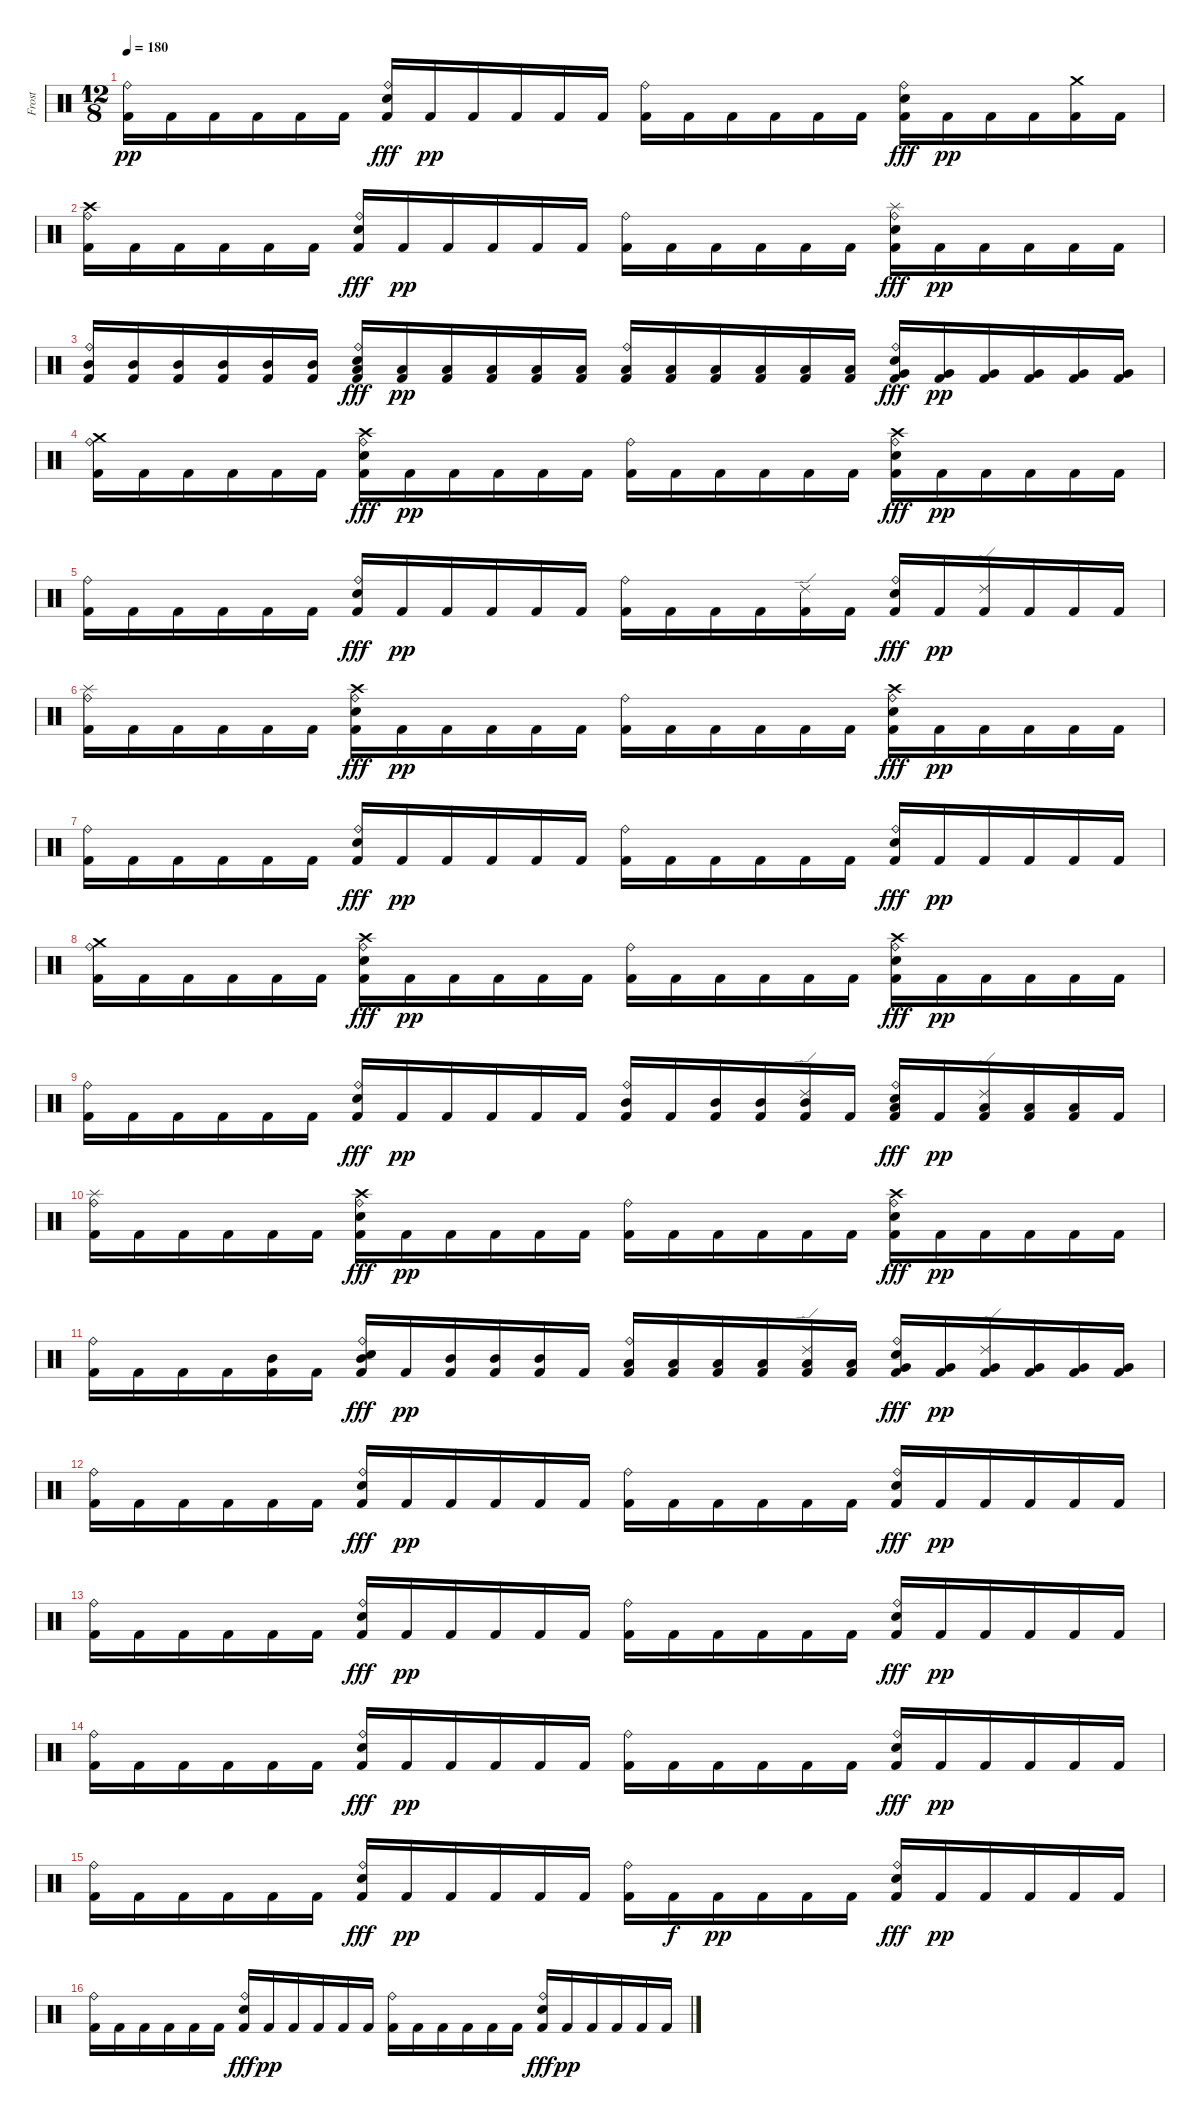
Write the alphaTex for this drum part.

\track ("Frost" "Frost") {instrument percussion}
\staff {score}
\articulation defaults
\ts (12 8)
\tempo 180
\clef neutral
\ks c
("Kick (hit) 2" "Ride (bell)").16{dy pp} "Kick (hit) 2".16 "Kick (hit) 2".16 "Kick (hit) 2".16 "Kick (hit) 2".16 "Kick (hit) 2".16 ("Kick (hit) 2" "Ride (bell)" "Electric Snare (hit)").16{dy fff} "Kick (hit) 2".16{dy pp} "Kick (hit) 2".16 "Kick (hit) 2".16 "Kick (hit) 2".16 "Kick (hit) 2".16 ("Kick (hit) 2" "Ride (bell)").16 "Kick (hit) 2".16 "Kick (hit) 2".16 "Kick (hit) 2".16 "Kick (hit) 2".16 "Kick (hit) 2".16 ("Kick (hit) 2" "Ride (bell)" "Electric Snare (hit)").16{dy fff} "Kick (hit) 2".16{dy pp} "Kick (hit) 2".16 "Kick (hit) 2".16 ("Kick (hit) 2" "Crash medium (hit)").16 "Kick (hit) 2".16 |
("Kick (hit) 2" "Crash high (hit)" "Ride (bell)").16 "Kick (hit) 2".16 "Kick (hit) 2".16 "Kick (hit) 2".16 "Kick (hit) 2".16 "Kick (hit) 2".16 ("Kick (hit) 2" "Ride (bell)" "Electric Snare (hit)").16{dy fff} "Kick (hit) 2".16{dy pp} "Kick (hit) 2".16 "Kick (hit) 2".16 "Kick (hit) 2".16 "Kick (hit) 2".16 ("Kick (hit) 2" "Ride (bell)").16 "Kick (hit) 2".16 "Kick (hit) 2".16 "Kick (hit) 2".16 "Kick (hit) 2".16 "Kick (hit) 2".16 ("Kick (hit) 2" "Splash (hit)" "Ride (bell)" "Electric Snare (hit)").16{dy fff} "Kick (hit) 2".16{dy pp} "Kick (hit) 2".16 "Kick (hit) 2".16 "Kick (hit) 2".16 "Kick (hit) 2".16 |
("Kick (hit) 2" "Mid Tom (hit)" "Ride (bell)").16 ("Kick (hit) 2" "Mid Tom (hit)").16 ("Kick (hit) 2" "Mid Tom (hit)").16 ("Kick (hit) 2" "Mid Tom (hit)").16 ("Kick (hit) 2" "Mid Tom (hit)").16 ("Kick (hit) 2" "Mid Tom (hit)").16 ("Kick (hit) 2" "Low Tom (hit)" "Ride (bell)" "Electric Snare (hit)").16{dy fff} ("Kick (hit) 2" "Low Tom (hit)").16{dy pp} ("Kick (hit) 2" "Low Tom (hit)").16 ("Kick (hit) 2" "Low Tom (hit)").16 ("Kick (hit) 2" "Low Tom (hit)").16 ("Kick (hit) 2" "Low Tom (hit)").16 ("Kick (hit) 2" "Low Tom (hit)" "Ride (bell)").16 ("Kick (hit) 2" "Low Tom (hit)").16 ("Kick (hit) 2" "Low Tom (hit)").16 ("Kick (hit) 2" "Low Tom (hit)").16 ("Kick (hit) 2" "Low Tom (hit)").16 ("Kick (hit) 2" "Low Tom (hit)").16 ("Kick (hit) 2" "Very Low Tom (hit)" "Ride (bell)" "Electric Snare (hit)").16{dy fff} ("Kick (hit) 2" "Very Low Tom (hit)").16{dy pp} ("Kick (hit) 2" "Very Low Tom (hit)").16 ("Kick (hit) 2" "Very Low Tom (hit)").16 ("Kick (hit) 2" "Very Low Tom (hit)").16 ("Kick (hit) 2" "Very Low Tom (hit)").16 |
("Kick (hit) 2" "Crash medium (hit)" "Ride (bell)").16 "Kick (hit) 2".16 "Kick (hit) 2".16 "Kick (hit) 2".16 "Kick (hit) 2".16 "Kick (hit) 2".16 ("Kick (hit) 2" "Crash high (hit)" "Ride (bell)" "Electric Snare (hit)").16{dy fff} "Kick (hit) 2".16{dy pp} "Kick (hit) 2".16 "Kick (hit) 2".16 "Kick (hit) 2".16 "Kick (hit) 2".16 ("Kick (hit) 2" "Ride (bell)").16 "Kick (hit) 2".16 "Kick (hit) 2".16 "Kick (hit) 2".16 "Kick (hit) 2".16 "Kick (hit) 2".16 ("Kick (hit) 2" "Crash high (hit)" "Ride (bell)" "Electric Snare (hit)").16{dy fff} "Kick (hit) 2".16{dy pp} "Kick (hit) 2".16 "Kick (hit) 2".16 "Kick (hit) 2".16 "Kick (hit) 2".16 |
("Kick (hit) 2" "Ride (bell)").16 "Kick (hit) 2".16 "Kick (hit) 2".16 "Kick (hit) 2".16 "Kick (hit) 2".16 "Kick (hit) 2".16 ("Kick (hit) 2" "Ride (bell)" "Electric Snare (hit)").16{dy fff} "Kick (hit) 2".16{dy pp} "Kick (hit) 2".16 "Kick (hit) 2".16 "Kick (hit) 2".16 "Kick (hit) 2".16 ("Kick (hit) 2" "Ride (bell)").16 "Kick (hit) 2".16 "Kick (hit) 2".16 "Kick (hit) 2".16 ("Kick (hit) 2" "Ride (edge) 2").16 "Kick (hit) 2".16 ("Kick (hit) 2" "Ride (bell)" "Electric Snare (hit)").16{dy fff} "Kick (hit) 2".16{dy pp} ("Kick (hit) 2" "Ride (edge) 2").16 "Kick (hit) 2".16 "Kick (hit) 2".16 "Kick (hit) 2".16 |
("Kick (hit) 2" "Splash (hit)" "Ride (bell)").16 "Kick (hit) 2".16 "Kick (hit) 2".16 "Kick (hit) 2".16 "Kick (hit) 2".16 "Kick (hit) 2".16 ("Kick (hit) 2" "Crash high (hit)" "Ride (bell)" "Electric Snare (hit)").16{dy fff} "Kick (hit) 2".16{dy pp} "Kick (hit) 2".16 "Kick (hit) 2".16 "Kick (hit) 2".16 "Kick (hit) 2".16 ("Kick (hit) 2" "Ride (bell)").16 "Kick (hit) 2".16 "Kick (hit) 2".16 "Kick (hit) 2".16 "Kick (hit) 2".16 "Kick (hit) 2".16 ("Kick (hit) 2" "Crash high (hit)" "Ride (bell)" "Electric Snare (hit)").16{dy fff} "Kick (hit) 2".16{dy pp} "Kick (hit) 2".16 "Kick (hit) 2".16 "Kick (hit) 2".16 "Kick (hit) 2".16 |
("Kick (hit) 2" "Ride (bell)").16 "Kick (hit) 2".16 "Kick (hit) 2".16 "Kick (hit) 2".16 "Kick (hit) 2".16 "Kick (hit) 2".16 ("Kick (hit) 2" "Ride (bell)" "Electric Snare (hit)").16{dy fff} "Kick (hit) 2".16{dy pp} "Kick (hit) 2".16 "Kick (hit) 2".16 "Kick (hit) 2".16 "Kick (hit) 2".16 ("Kick (hit) 2" "Ride (bell)").16 "Kick (hit) 2".16 "Kick (hit) 2".16 "Kick (hit) 2".16 "Kick (hit) 2".16 "Kick (hit) 2".16 ("Kick (hit) 2" "Ride (bell)" "Electric Snare (hit)").16{dy fff} "Kick (hit) 2".16{dy pp} "Kick (hit) 2".16 "Kick (hit) 2".16 "Kick (hit) 2".16 "Kick (hit) 2".16 |
("Kick (hit) 2" "Crash medium (hit)" "Ride (bell)").16 "Kick (hit) 2".16 "Kick (hit) 2".16 "Kick (hit) 2".16 "Kick (hit) 2".16 "Kick (hit) 2".16 ("Kick (hit) 2" "Crash high (hit)" "Ride (bell)" "Electric Snare (hit)").16{dy fff} "Kick (hit) 2".16{dy pp} "Kick (hit) 2".16 "Kick (hit) 2".16 "Kick (hit) 2".16 "Kick (hit) 2".16 ("Kick (hit) 2" "Ride (bell)").16 "Kick (hit) 2".16 "Kick (hit) 2".16 "Kick (hit) 2".16 "Kick (hit) 2".16 "Kick (hit) 2".16 ("Kick (hit) 2" "Crash high (hit)" "Ride (bell)" "Electric Snare (hit)").16{dy fff} "Kick (hit) 2".16{dy pp} "Kick (hit) 2".16 "Kick (hit) 2".16 "Kick (hit) 2".16 "Kick (hit) 2".16 |
("Kick (hit) 2" "Ride (bell)").16 "Kick (hit) 2".16 "Kick (hit) 2".16 "Kick (hit) 2".16 "Kick (hit) 2".16 "Kick (hit) 2".16 ("Kick (hit) 2" "Ride (bell)" "Electric Snare (hit)").16{dy fff} "Kick (hit) 2".16{dy pp} "Kick (hit) 2".16 "Kick (hit) 2".16 "Kick (hit) 2".16 "Kick (hit) 2".16 ("Kick (hit) 2" "Mid Tom (hit)" "Ride (bell)").16 "Kick (hit) 2".16 ("Kick (hit) 2" "Mid Tom (hit)").16 ("Kick (hit) 2" "Mid Tom (hit)").16 ("Kick (hit) 2" "Mid Tom (hit)" "Ride (edge) 2").16 "Kick (hit) 2".16 ("Kick (hit) 2" "Low Tom (hit)" "Ride (bell)" "Electric Snare (hit)").16{dy fff} "Kick (hit) 2".16{dy pp} ("Kick (hit) 2" "Low Tom (hit)" "Ride (edge) 2").16 ("Kick (hit) 2" "Low Tom (hit)").16 ("Kick (hit) 2" "Low Tom (hit)").16 "Kick (hit) 2".16 |
("Kick (hit) 2" "Splash (hit)" "Ride (bell)").16 "Kick (hit) 2".16 "Kick (hit) 2".16 "Kick (hit) 2".16 "Kick (hit) 2".16 "Kick (hit) 2".16 ("Kick (hit) 2" "Crash high (hit)" "Ride (bell)" "Electric Snare (hit)").16{dy fff} "Kick (hit) 2".16{dy pp} "Kick (hit) 2".16 "Kick (hit) 2".16 "Kick (hit) 2".16 "Kick (hit) 2".16 ("Kick (hit) 2" "Ride (bell)").16 "Kick (hit) 2".16 "Kick (hit) 2".16 "Kick (hit) 2".16 "Kick (hit) 2".16 "Kick (hit) 2".16 ("Kick (hit) 2" "Crash high (hit)" "Ride (bell)" "Electric Snare (hit)").16{dy fff} "Kick (hit) 2".16{dy pp} "Kick (hit) 2".16 "Kick (hit) 2".16 "Kick (hit) 2".16 "Kick (hit) 2".16 |
("Kick (hit) 2" "Ride (bell)").16 "Kick (hit) 2".16 "Kick (hit) 2".16 "Kick (hit) 2".16 ("Kick (hit) 2" "Mid Tom (hit)").16 "Kick (hit) 2".16 ("Kick (hit) 2" "Mid Tom (hit)" "Ride (bell)" "Electric Snare (hit)").16{dy fff} "Kick (hit) 2".16{dy pp} ("Kick (hit) 2" "Mid Tom (hit)").16 ("Kick (hit) 2" "Mid Tom (hit)").16 ("Kick (hit) 2" "Mid Tom (hit)").16 "Kick (hit) 2".16 ("Kick (hit) 2" "Low Tom (hit)" "Ride (bell)").16 ("Kick (hit) 2" "Low Tom (hit)").16 ("Kick (hit) 2" "Low Tom (hit)").16 ("Kick (hit) 2" "Low Tom (hit)").16 ("Kick (hit) 2" "Low Tom (hit)" "Ride (edge) 2").16 ("Kick (hit) 2" "Low Tom (hit)").16 ("Kick (hit) 2" "Very Low Tom (hit)" "Ride (bell)" "Electric Snare (hit)").16{dy fff} ("Kick (hit) 2" "Very Low Tom (hit)").16{dy pp} ("Kick (hit) 2" "Very Low Tom (hit)" "Ride (edge) 2").16 ("Kick (hit) 2" "Very Low Tom (hit)").16 ("Kick (hit) 2" "Very Low Tom (hit)").16 ("Kick (hit) 2" "Very Low Tom (hit)").16 |
("Kick (hit) 2" "Ride (bell)").16 "Kick (hit) 2".16 "Kick (hit) 2".16 "Kick (hit) 2".16 "Kick (hit) 2".16 "Kick (hit) 2".16 ("Kick (hit) 2" "Ride (bell)" "Electric Snare (hit)").16{dy fff} "Kick (hit) 2".16{dy pp} "Kick (hit) 2".16 "Kick (hit) 2".16 "Kick (hit) 2".16 "Kick (hit) 2".16 ("Kick (hit) 2" "Ride (bell)").16 "Kick (hit) 2".16 "Kick (hit) 2".16 "Kick (hit) 2".16 "Kick (hit) 2".16 "Kick (hit) 2".16 ("Kick (hit) 2" "Ride (bell)" "Electric Snare (hit)").16{dy fff} "Kick (hit) 2".16{dy pp} "Kick (hit) 2".16 "Kick (hit) 2".16 "Kick (hit) 2".16 "Kick (hit) 2".16 |
("Kick (hit) 2" "Ride (bell)").16 "Kick (hit) 2".16 "Kick (hit) 2".16 "Kick (hit) 2".16 "Kick (hit) 2".16 "Kick (hit) 2".16 ("Kick (hit) 2" "Ride (bell)" "Electric Snare (hit)").16{dy fff} "Kick (hit) 2".16{dy pp} "Kick (hit) 2".16 "Kick (hit) 2".16 "Kick (hit) 2".16 "Kick (hit) 2".16 ("Kick (hit) 2" "Ride (bell)").16 "Kick (hit) 2".16 "Kick (hit) 2".16 "Kick (hit) 2".16 "Kick (hit) 2".16 "Kick (hit) 2".16 ("Kick (hit) 2" "Ride (bell)" "Electric Snare (hit)").16{dy fff} "Kick (hit) 2".16{dy pp} "Kick (hit) 2".16 "Kick (hit) 2".16 "Kick (hit) 2".16 "Kick (hit) 2".16 |
("Kick (hit) 2" "Ride (bell)").16 "Kick (hit) 2".16 "Kick (hit) 2".16 "Kick (hit) 2".16 "Kick (hit) 2".16 "Kick (hit) 2".16 ("Kick (hit) 2" "Ride (bell)" "Electric Snare (hit)").16{dy fff} "Kick (hit) 2".16{dy pp} "Kick (hit) 2".16 "Kick (hit) 2".16 "Kick (hit) 2".16 "Kick (hit) 2".16 ("Kick (hit) 2" "Ride (bell)").16 "Kick (hit) 2".16 "Kick (hit) 2".16 "Kick (hit) 2".16 "Kick (hit) 2".16 "Kick (hit) 2".16 ("Kick (hit) 2" "Ride (bell)" "Electric Snare (hit)").16{dy fff} "Kick (hit) 2".16{dy pp} "Kick (hit) 2".16 "Kick (hit) 2".16 "Kick (hit) 2".16 "Kick (hit) 2".16 |
("Kick (hit) 2" "Ride (bell)").16 "Kick (hit) 2".16 "Kick (hit) 2".16 "Kick (hit) 2".16 "Kick (hit) 2".16 "Kick (hit) 2".16 ("Kick (hit) 2" "Ride (bell)" "Electric Snare (hit)").16{dy fff} "Kick (hit) 2".16{dy pp} "Kick (hit) 2".16 "Kick (hit) 2".16 "Kick (hit) 2".16 "Kick (hit) 2".16 ("Kick (hit) 2" "Ride (bell)").16 "Kick (hit) 2".16{dy f} "Kick (hit) 2".16{dy pp} "Kick (hit) 2".16 "Kick (hit) 2".16 "Kick (hit) 2".16 ("Kick (hit) 2" "Ride (bell)" "Electric Snare (hit)").16{dy fff} "Kick (hit) 2".16{dy pp} "Kick (hit) 2".16 "Kick (hit) 2".16 "Kick (hit) 2".16 "Kick (hit) 2".16 |
("Kick (hit) 2" "Ride (bell)").16 "Kick (hit) 2".16 "Kick (hit) 2".16 "Kick (hit) 2".16 "Kick (hit) 2".16 "Kick (hit) 2".16 ("Kick (hit) 2" "Ride (bell)" "Electric Snare (hit)").16{dy fff} "Kick (hit) 2".16{dy pp} "Kick (hit) 2".16 "Kick (hit) 2".16 "Kick (hit) 2".16 "Kick (hit) 2".16 ("Kick (hit) 2" "Ride (bell)").16 "Kick (hit) 2".16 "Kick (hit) 2".16 "Kick (hit) 2".16 "Kick (hit) 2".16 "Kick (hit) 2".16 ("Kick (hit) 2" "Ride (bell)" "Electric Snare (hit)").16{dy fff} "Kick (hit) 2".16{dy pp} "Kick (hit) 2".16 "Kick (hit) 2".16 "Kick (hit) 2".16 "Kick (hit) 2".16
